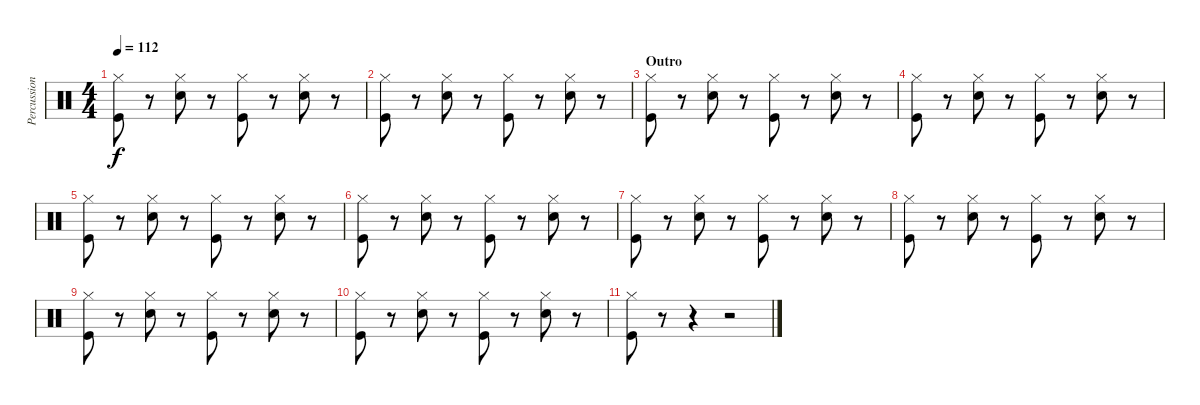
\track ("Percussion" "Percussion") {instrument percussion}
\staff
\articulation defaults
\ts (4 4)
\tempo 112
\clef neutral
\ks c
("Kick (hit)" "Hi-Hat (closed)").8{dy f} r.8 ("Electric Snare (hit)" "Hi-Hat (closed)").8 r.8 ("Kick (hit)" "Hi-Hat (closed)").8 r.8 ("Electric Snare (hit)" "Hi-Hat (closed)").8 r.8 |
("Kick (hit)" "Hi-Hat (closed)").8 r.8 ("Electric Snare (hit)" "Hi-Hat (closed)").8 r.8 ("Kick (hit)" "Hi-Hat (closed)").8 r.8 ("Electric Snare (hit)" "Hi-Hat (closed)").8 r.8 |
\section ("" "Outro")
("Kick (hit)" "Hi-Hat (closed)").8 r.8 ("Electric Snare (hit)" "Hi-Hat (closed)").8 r.8 ("Kick (hit)" "Hi-Hat (closed)").8 r.8 ("Electric Snare (hit)" "Hi-Hat (closed)").8 r.8 |
("Kick (hit)" "Hi-Hat (closed)").8 r.8 ("Electric Snare (hit)" "Hi-Hat (closed)").8 r.8 ("Kick (hit)" "Hi-Hat (closed)").8 r.8 ("Electric Snare (hit)" "Hi-Hat (closed)").8 r.8 |
("Kick (hit)" "Hi-Hat (closed)").8 r.8 ("Electric Snare (hit)" "Hi-Hat (closed)").8 r.8 ("Kick (hit)" "Hi-Hat (closed)").8 r.8 ("Electric Snare (hit)" "Hi-Hat (closed)").8 r.8 |
("Kick (hit)" "Hi-Hat (closed)").8 r.8 ("Electric Snare (hit)" "Hi-Hat (closed)").8 r.8 ("Kick (hit)" "Hi-Hat (closed)").8 r.8 ("Electric Snare (hit)" "Hi-Hat (closed)").8 r.8 |
("Kick (hit)" "Hi-Hat (closed)").8 r.8 ("Electric Snare (hit)" "Hi-Hat (closed)").8 r.8 ("Kick (hit)" "Hi-Hat (closed)").8 r.8 ("Electric Snare (hit)" "Hi-Hat (closed)").8 r.8 |
("Kick (hit)" "Hi-Hat (closed)").8 r.8 ("Electric Snare (hit)" "Hi-Hat (closed)").8 r.8 ("Kick (hit)" "Hi-Hat (closed)").8 r.8 ("Electric Snare (hit)" "Hi-Hat (closed)").8 r.8 |
("Kick (hit)" "Hi-Hat (closed)").8 r.8 ("Electric Snare (hit)" "Hi-Hat (closed)").8 r.8 ("Kick (hit)" "Hi-Hat (closed)").8 r.8 ("Electric Snare (hit)" "Hi-Hat (closed)").8 r.8 |
("Kick (hit)" "Hi-Hat (closed)").8 r.8 ("Electric Snare (hit)" "Hi-Hat (closed)").8 r.8 ("Kick (hit)" "Hi-Hat (closed)").8 r.8 ("Electric Snare (hit)" "Hi-Hat (closed)").8 r.8 |
("Kick (hit)" "Hi-Hat (closed)").8 r.8 r.4 r.2
